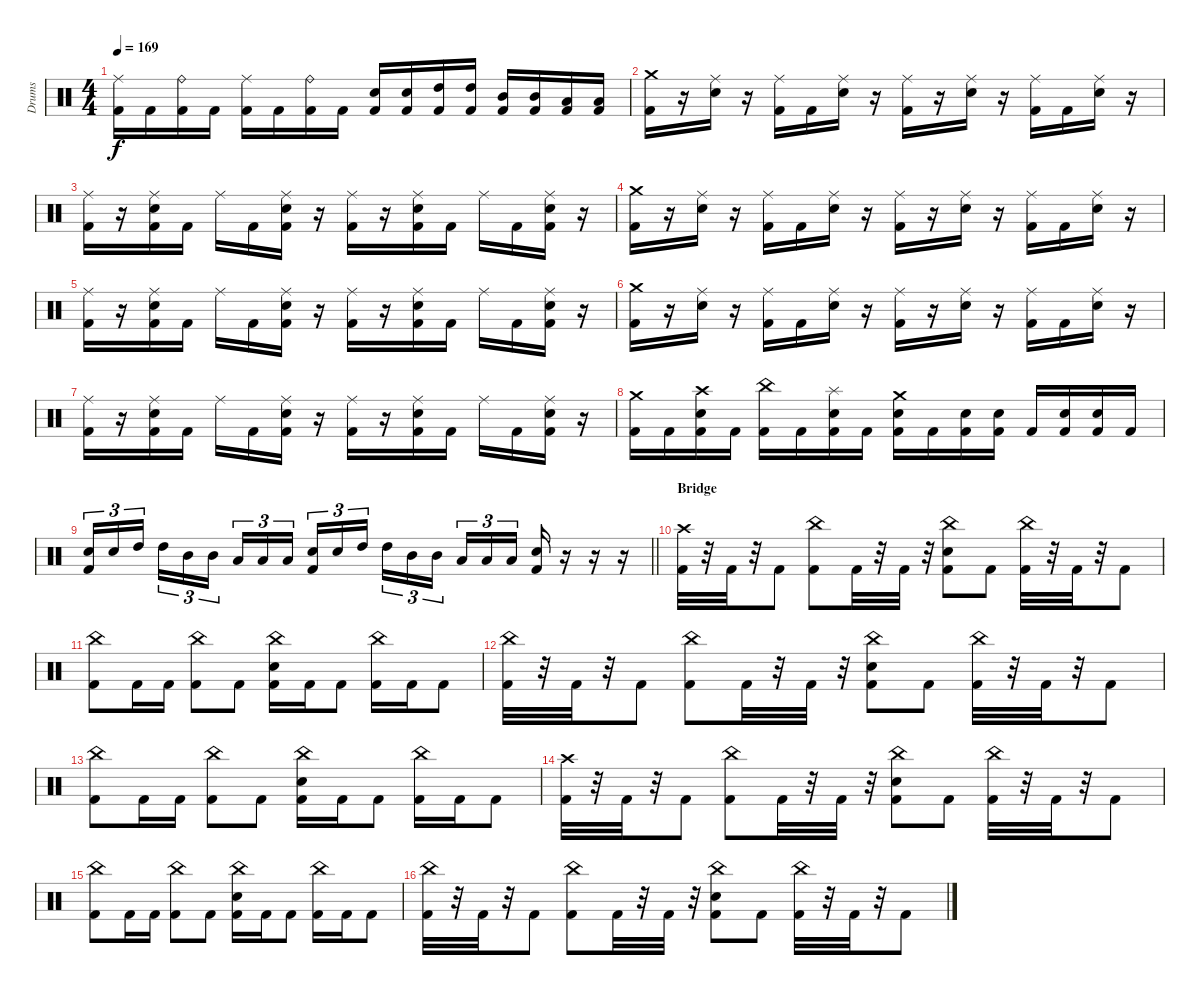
\track ("Drums" "Drums") {instrument percussion}
\staff {score}
\articulation defaults
\ts (4 4)
\tempo 169
\clef neutral
\ks c
("Ride (middle)" "Kick (hit) 2").16{dy f} "Kick (hit) 2".16 ("Ride (bell)" "Kick (hit) 2").16 "Kick (hit) 2".16 ("Ride (middle)" "Kick (hit) 2").16 "Kick (hit) 2".16 ("Ride (bell)" "Kick (hit) 2").16 "Kick (hit) 2".16 ("Snare (hit) 2" "Kick (hit) 2").16 ("Snare (hit) 2" "Kick (hit) 2").16 ("High Tom (hit)" "Kick (hit) 2").16 ("High Tom (hit)" "Kick (hit) 2").16 ("Mid Tom (hit)" "Kick (hit) 2").16 ("Mid Tom (hit)" "Kick (hit) 2").16 ("Low Tom (hit)" "Kick (hit) 2").16 ("Low Tom (hit)" "Kick (hit) 2").16 |
("Crash medium (hit)" "Kick (hit) 2").16 r.16 ("Ride (middle)" "Snare (hit) 2").16 r.16 ("Ride (middle)" "Kick (hit) 2").16 "Kick (hit) 2".16 ("Ride (middle)" "Snare (hit) 2").16 r.16 ("Ride (middle)" "Kick (hit) 2").16 r.16 ("Ride (middle)" "Snare (hit) 2").16 r.16 ("Ride (middle)" "Kick (hit) 2").16 "Kick (hit) 2".16 ("Ride (middle)" "Snare (hit) 2").16 r.16 |
("Ride (middle)" "Kick (hit) 2").16 r.16 ("Ride (middle)" "Snare (hit) 2" "Kick (hit) 2").16 "Kick (hit) 2".16 "Ride (middle)".16 "Kick (hit) 2".16 ("Ride (middle)" "Snare (hit) 2" "Kick (hit) 2").16 r.16 ("Ride (middle)" "Kick (hit) 2").16 r.16 ("Ride (middle)" "Snare (hit) 2" "Kick (hit) 2").16 "Kick (hit) 2".16 "Ride (middle)".16 "Kick (hit) 2".16 ("Ride (middle)" "Snare (hit) 2" "Kick (hit) 2").16 r.16 |
("Crash medium (hit)" "Kick (hit) 2").16 r.16 ("Ride (middle)" "Snare (hit) 2").16 r.16 ("Ride (middle)" "Kick (hit) 2").16 "Kick (hit) 2".16 ("Ride (middle)" "Snare (hit) 2").16 r.16 ("Ride (middle)" "Kick (hit) 2").16 r.16 ("Ride (middle)" "Snare (hit) 2").16 r.16 ("Ride (middle)" "Kick (hit) 2").16 "Kick (hit) 2".16 ("Ride (middle)" "Snare (hit) 2").16 r.16 |
("Ride (middle)" "Kick (hit) 2").16 r.16 ("Ride (middle)" "Snare (hit) 2" "Kick (hit) 2").16 "Kick (hit) 2".16 "Ride (middle)".16 "Kick (hit) 2".16 ("Ride (middle)" "Snare (hit) 2" "Kick (hit) 2").16 r.16 ("Ride (middle)" "Kick (hit) 2").16 r.16 ("Ride (middle)" "Snare (hit) 2" "Kick (hit) 2").16 "Kick (hit) 2".16 "Ride (middle)".16 "Kick (hit) 2".16 ("Ride (middle)" "Snare (hit) 2" "Kick (hit) 2").16 r.16 |
("Crash medium (hit)" "Kick (hit) 2").16 r.16 ("Ride (middle)" "Snare (hit) 2").16 r.16 ("Ride (middle)" "Kick (hit) 2").16 "Kick (hit) 2".16 ("Ride (middle)" "Snare (hit) 2").16 r.16 ("Ride (middle)" "Kick (hit) 2").16 r.16 ("Ride (middle)" "Snare (hit) 2").16 r.16 ("Ride (middle)" "Kick (hit) 2").16 "Kick (hit) 2".16 ("Ride (middle)" "Snare (hit) 2").16 r.16 |
("Ride (middle)" "Kick (hit) 2").16 r.16 ("Ride (middle)" "Snare (hit) 2" "Kick (hit) 2").16 "Kick (hit) 2".16 "Ride (middle)".16 "Kick (hit) 2".16 ("Ride (middle)" "Snare (hit) 2" "Kick (hit) 2").16 r.16 ("Ride (middle)" "Kick (hit) 2").16 r.16 ("Ride (middle)" "Snare (hit) 2" "Kick (hit) 2").16 "Kick (hit) 2".16 "Ride (middle)".16 "Kick (hit) 2".16 ("Ride (middle)" "Snare (hit) 2" "Kick (hit) 2").16 r.16 |
("Crash medium (hit)" "Kick (hit) 2").16 "Kick (hit) 2".16 ("Crash high (hit)" "Snare (hit) 2" "Kick (hit) 2").16 "Kick (hit) 2".16 ("China (hit)" "Kick (hit) 2").16 "Kick (hit) 2".16 ("Splash (hit)" "Snare (hit) 2" "Kick (hit) 2").16 "Kick (hit) 2".16 ("Crash medium (hit)" "Snare (hit) 2" "Kick (hit) 2").16 "Kick (hit) 2".16 ("Snare (hit) 2" "Kick (hit) 2").16 ("Snare (hit) 2" "Kick (hit) 2").16 "Kick (hit) 2".16 ("Snare (hit) 2" "Kick (hit) 2").16 ("Snare (hit) 2" "Kick (hit) 2").16 "Kick (hit) 2".16 |
\barLineRight lightlight
("Snare (hit) 2" "Kick (hit) 2").16{tu (3 2)} "Snare (hit) 2".16{tu (3 2)} "High Tom (hit)".16{tu (3 2) beam splitsecondary} "High Tom (hit)".16{tu (3 2)} "Mid Tom (hit)".16{tu (3 2)} "Mid Tom (hit)".16{tu (3 2)} "Low Tom (hit)".16{tu (3 2)} "Low Tom (hit)".16{tu (3 2)} "Low Tom (hit)".16{tu (3 2) beam splitsecondary} ("Snare (hit) 2" "Kick (hit) 2").16{tu (3 2)} "Snare (hit) 2".16{tu (3 2)} "High Tom (hit)".16{tu (3 2)} "High Tom (hit)".16{tu (3 2)} "Mid Tom (hit)".16{tu (3 2)} "Mid Tom (hit)".16{tu (3 2) beam splitsecondary} "Low Tom (hit)".16{tu (3 2)} "Low Tom (hit)".16{tu (3 2)} "Low Tom (hit)".16{tu (3 2)} ("Snare (hit) 2" "Kick (hit) 2").16 r.16 r.16 r.16 |
\section ("" "Bridge")
("Crash high (hit)" "Kick (hit) 2").32 r.32 "Kick (hit) 2".32 r.32 "Kick (hit) 2".8 ("China (hit)" "Kick (hit) 2").8 "Kick (hit) 2".32 r.32 "Kick (hit) 2".32 r.32 ("China (hit)" "Snare (hit) 2" "Kick (hit) 2").8 "Kick (hit) 2".8 ("China (hit)" "Kick (hit) 2").32 r.32 "Kick (hit) 2".32 r.32 "Kick (hit) 2".8 |
("China (hit)" "Kick (hit) 2").8 "Kick (hit) 2".16 "Kick (hit) 2".16 ("China (hit)" "Kick (hit) 2").8 "Kick (hit) 2".8 ("China (hit)" "Snare (hit) 2" "Kick (hit) 2").16 "Kick (hit) 2".16 "Kick (hit) 2".8 ("China (hit)" "Kick (hit) 2").16 "Kick (hit) 2".16 "Kick (hit) 2".8 |
("China (hit)" "Kick (hit) 2").32 r.32 "Kick (hit) 2".32 r.32 "Kick (hit) 2".8 ("China (hit)" "Kick (hit) 2").8 "Kick (hit) 2".32 r.32 "Kick (hit) 2".32 r.32 ("China (hit)" "Snare (hit) 2" "Kick (hit) 2").8 "Kick (hit) 2".8 ("China (hit)" "Kick (hit) 2").32 r.32 "Kick (hit) 2".32 r.32 "Kick (hit) 2".8 |
("China (hit)" "Kick (hit) 2").8 "Kick (hit) 2".16 "Kick (hit) 2".16 ("China (hit)" "Kick (hit) 2").8 "Kick (hit) 2".8 ("China (hit)" "Snare (hit) 2" "Kick (hit) 2").16 "Kick (hit) 2".16 "Kick (hit) 2".8 ("China (hit)" "Kick (hit) 2").16 "Kick (hit) 2".16 "Kick (hit) 2".8 |
("Crash high (hit)" "Kick (hit) 2").32 r.32 "Kick (hit) 2".32 r.32 "Kick (hit) 2".8 ("China (hit)" "Kick (hit) 2").8 "Kick (hit) 2".32 r.32 "Kick (hit) 2".32 r.32 ("China (hit)" "Snare (hit) 2" "Kick (hit) 2").8 "Kick (hit) 2".8 ("China (hit)" "Kick (hit) 2").32 r.32 "Kick (hit) 2".32 r.32 "Kick (hit) 2".8 |
("China (hit)" "Kick (hit) 2").8 "Kick (hit) 2".16 "Kick (hit) 2".16 ("China (hit)" "Kick (hit) 2").8 "Kick (hit) 2".8 ("China (hit)" "Snare (hit) 2" "Kick (hit) 2").16 "Kick (hit) 2".16 "Kick (hit) 2".8 ("China (hit)" "Kick (hit) 2").16 "Kick (hit) 2".16 "Kick (hit) 2".8 |
("China (hit)" "Kick (hit) 2").32 r.32 "Kick (hit) 2".32 r.32 "Kick (hit) 2".8 ("China (hit)" "Kick (hit) 2").8 "Kick (hit) 2".32 r.32 "Kick (hit) 2".32 r.32 ("China (hit)" "Snare (hit) 2" "Kick (hit) 2").8 "Kick (hit) 2".8 ("China (hit)" "Kick (hit) 2").32 r.32 "Kick (hit) 2".32 r.32 "Kick (hit) 2".8
